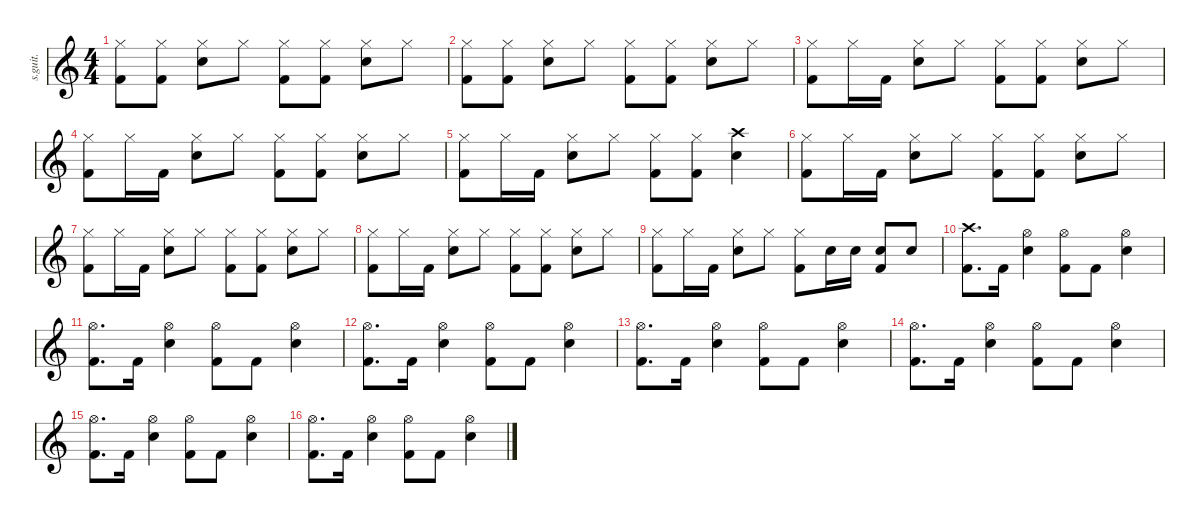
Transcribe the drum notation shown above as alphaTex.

\defaultSystemsLayout 4
\hideDynamics
\bracketExtendMode nobrackets
\track ("" "s.guit.") {instrument percussion}
\staff {score}
\articulation defaults
\ts (4 4)
\tempo (180 hide)
\clef g2
\ks c
("Kick (hit) 2" "Hi-Hat (closed)").8{dy f} ("Kick (hit) 2" "Hi-Hat (closed)").8 ("Snare (hit) 2" "Hi-Hat (closed)").8 "Hi-Hat (closed)".8 ("Kick (hit) 2" "Hi-Hat (closed)").8 ("Kick (hit) 2" "Hi-Hat (closed)").8 ("Snare (hit) 2" "Hi-Hat (closed)").8 "Hi-Hat (closed)".8 |
("Kick (hit) 2" "Hi-Hat (closed)").8 ("Kick (hit) 2" "Hi-Hat (closed)").8 ("Snare (hit) 2" "Hi-Hat (closed)").8 "Hi-Hat (closed)".8 ("Kick (hit) 2" "Hi-Hat (closed)").8 ("Kick (hit) 2" "Hi-Hat (closed)").8 ("Snare (hit) 2" "Hi-Hat (closed)").8 "Hi-Hat (closed)".8 |
("Kick (hit) 2" "Hi-Hat (closed)").8 "Hi-Hat (closed)".16 "Kick (hit) 2".16 ("Snare (hit) 2" "Hi-Hat (closed)").8 "Hi-Hat (closed)".8 ("Kick (hit) 2" "Hi-Hat (closed)").8 ("Kick (hit) 2" "Hi-Hat (closed)").8 ("Snare (hit) 2" "Hi-Hat (closed)").8 "Hi-Hat (closed)".8 |
("Kick (hit) 2" "Hi-Hat (closed)").8 "Hi-Hat (closed)".16 "Kick (hit) 2".16 ("Snare (hit) 2" "Hi-Hat (closed)").8 "Hi-Hat (closed)".8 ("Kick (hit) 2" "Hi-Hat (closed)").8 ("Kick (hit) 2" "Hi-Hat (closed)").8 ("Snare (hit) 2" "Hi-Hat (closed)").8 "Hi-Hat (closed)".8 |
("Kick (hit) 2" "Hi-Hat (closed)").8 "Hi-Hat (closed)".16 "Kick (hit) 2".16 ("Snare (hit) 2" "Hi-Hat (closed)").8 "Hi-Hat (closed)".8 ("Kick (hit) 2" "Hi-Hat (closed)").8 ("Kick (hit) 2" "Hi-Hat (closed)").8 ("Snare (hit) 2" "Crash high (hit)").4 |
("Kick (hit) 2" "Hi-Hat (closed)").8 "Hi-Hat (closed)".16 "Kick (hit) 2".16 ("Snare (hit) 2" "Hi-Hat (closed)").8 "Hi-Hat (closed)".8 ("Kick (hit) 2" "Hi-Hat (closed)").8 ("Kick (hit) 2" "Hi-Hat (closed)").8 ("Snare (hit) 2" "Hi-Hat (closed)").8 "Hi-Hat (closed)".8 |
("Kick (hit) 2" "Hi-Hat (closed)").8 "Hi-Hat (closed)".16 "Kick (hit) 2".16 ("Snare (hit) 2" "Hi-Hat (closed)").8 "Hi-Hat (closed)".8 ("Kick (hit) 2" "Hi-Hat (closed)").8 ("Kick (hit) 2" "Hi-Hat (closed)").8 ("Snare (hit) 2" "Hi-Hat (closed)").8 "Hi-Hat (closed)".8 |
("Kick (hit) 2" "Hi-Hat (closed)").8 "Hi-Hat (closed)".16 "Kick (hit) 2".16 ("Snare (hit) 2" "Hi-Hat (closed)").8 "Hi-Hat (closed)".8 ("Kick (hit) 2" "Hi-Hat (closed)").8 ("Kick (hit) 2" "Hi-Hat (closed)").8 ("Snare (hit) 2" "Hi-Hat (closed)").8 "Hi-Hat (closed)".8 |
("Kick (hit) 2" "Hi-Hat (closed)").8 "Hi-Hat (closed)".16 "Kick (hit) 2".16 ("Snare (hit) 2" "Hi-Hat (closed)").8 "Hi-Hat (closed)".8 ("Kick (hit) 2" "Hi-Hat (closed)").8 "Snare (hit) 2".16 "Snare (hit) 2".16 ("Kick (hit) 2" "Snare (hit) 2").8 "Snare (hit) 2".8 |
("Kick (hit) 2" "Crash high (hit)").8{d} "Kick (hit) 2".16 ("Snare (hit) 2" "Hi-Hat (open)").4 ("Kick (hit) 2" "Hi-Hat (open)").8 "Kick (hit) 2".8 ("Snare (hit) 2" "Hi-Hat (open)").4 |
("Kick (hit) 2" "Hi-Hat (open)").8{d} "Kick (hit) 2".16 ("Snare (hit) 2" "Hi-Hat (open)").4 ("Kick (hit) 2" "Hi-Hat (open)").8 "Kick (hit) 2".8 ("Snare (hit) 2" "Hi-Hat (open)").4 |
("Kick (hit) 2" "Hi-Hat (open)").8{d} "Kick (hit) 2".16 ("Snare (hit) 2" "Hi-Hat (open)").4 ("Kick (hit) 2" "Hi-Hat (open)").8 "Kick (hit) 2".8 ("Snare (hit) 2" "Hi-Hat (open)").4 |
("Kick (hit) 2" "Hi-Hat (open)").8{d} "Kick (hit) 2".16 ("Snare (hit) 2" "Hi-Hat (open)").4 ("Kick (hit) 2" "Hi-Hat (open)").8 "Kick (hit) 2".8 ("Snare (hit) 2" "Hi-Hat (open)").4 |
("Kick (hit) 2" "Hi-Hat (open)").8{d} "Kick (hit) 2".16 ("Snare (hit) 2" "Hi-Hat (open)").4 ("Kick (hit) 2" "Hi-Hat (open)").8 "Kick (hit) 2".8 ("Snare (hit) 2" "Hi-Hat (open)").4 |
("Kick (hit) 2" "Hi-Hat (open)").8{d} "Kick (hit) 2".16 ("Snare (hit) 2" "Hi-Hat (open)").4 ("Kick (hit) 2" "Hi-Hat (open)").8 "Kick (hit) 2".8 ("Snare (hit) 2" "Hi-Hat (open)").4 |
("Kick (hit) 2" "Hi-Hat (open)").8{d} "Kick (hit) 2".16 ("Snare (hit) 2" "Hi-Hat (open)").4 ("Kick (hit) 2" "Hi-Hat (open)").8 "Kick (hit) 2".8 ("Snare (hit) 2" "Hi-Hat (open)").4
